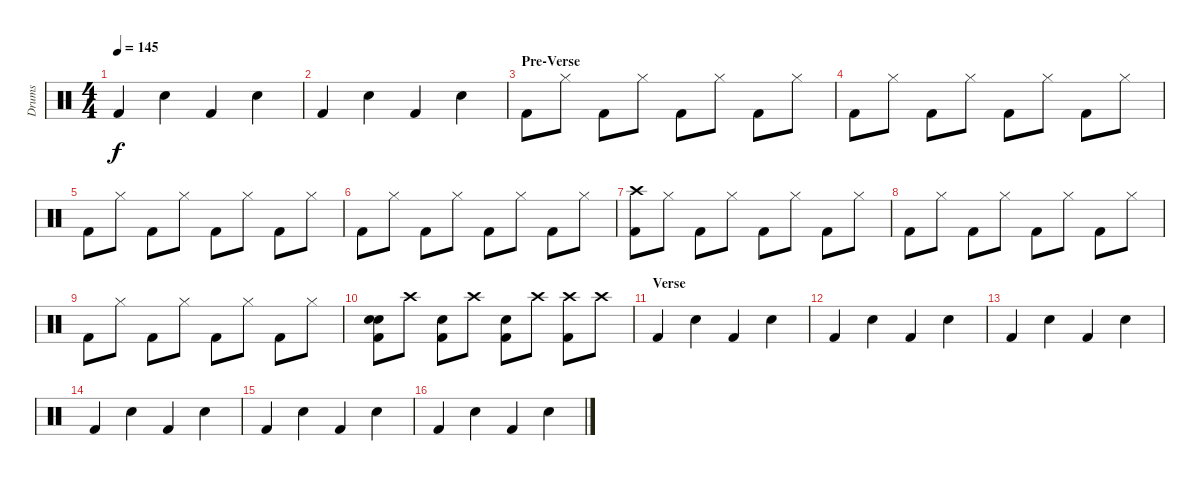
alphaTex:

\track ("Drums" "Drums") {instrument percussion}
\staff {score}
\articulation defaults
\ts (4 4)
\tempo 145
\clef neutral
\ks c "Kick (hit) 2".4{dy f} "Snare (hit) 2".4 "Kick (hit) 2".4 "Snare (hit) 2".4
|
"Kick (hit) 2".4 "Snare (hit) 2".4 "Kick (hit) 2".4 "Snare (hit) 2".4 |
\section ("" "Pre-Verse")
"Kick (hit) 2".8 "Hi-Hat (closed)".8 "Kick (hit) 2".8 "Hi-Hat (closed)".8 "Kick (hit) 2".8 "Hi-Hat (closed)".8 "Kick (hit) 2".8 "Hi-Hat (closed)".8 |
"Kick (hit) 2".8 "Hi-Hat (closed)".8 "Kick (hit) 2".8 "Hi-Hat (closed)".8 "Kick (hit) 2".8 "Hi-Hat (closed)".8 "Kick (hit) 2".8 "Hi-Hat (closed)".8 |
"Kick (hit) 2".8 "Hi-Hat (closed)".8 "Kick (hit) 2".8 "Hi-Hat (closed)".8 "Kick (hit) 2".8 "Hi-Hat (closed)".8 "Kick (hit) 2".8 "Hi-Hat (closed)".8 |
"Kick (hit) 2".8 "Hi-Hat (closed)".8 "Kick (hit) 2".8 "Hi-Hat (closed)".8 "Kick (hit) 2".8 "Hi-Hat (closed)".8 "Kick (hit) 2".8 "Hi-Hat (closed)".8 |
("Crash high (hit)" "Kick (hit) 2").8 "Hi-Hat (closed)".8 "Kick (hit) 2".8 "Hi-Hat (closed)".8 "Kick (hit) 2".8 "Hi-Hat (closed)".8 "Kick (hit) 2".8 "Hi-Hat (closed)".8 |
"Kick (hit) 2".8 "Hi-Hat (closed)".8 "Kick (hit) 2".8 "Hi-Hat (closed)".8 "Kick (hit) 2".8 "Hi-Hat (closed)".8 "Kick (hit) 2".8 "Hi-Hat (closed)".8 |
"Kick (hit) 2".8 "Hi-Hat (closed)".8 "Kick (hit) 2".8 "Hi-Hat (closed)".8 "Kick (hit) 2".8 "Hi-Hat (closed)".8 "Kick (hit) 2".8 "Hi-Hat (closed)".8 |
("Snare (hit) 2" "Snare (hit) 2" "Kick (hit) 2").8 "Crash high (hit)".8 ("Snare (hit) 2" "Kick (hit) 2").8 "Crash high (hit)".8 ("Snare (hit) 2" "Kick (hit) 2").8 "Crash high (hit)".8 ("Crash high (hit)" "Kick (hit) 2").8 "Crash high (hit)".8 |
\section ("" "Verse")
"Kick (hit) 2".4 "Snare (hit) 2".4 "Kick (hit) 2".4 "Snare (hit) 2".4 |
"Kick (hit) 2".4 "Snare (hit) 2".4 "Kick (hit) 2".4 "Snare (hit) 2".4 |
"Kick (hit) 2".4 "Snare (hit) 2".4 "Kick (hit) 2".4 "Snare (hit) 2".4 |
"Kick (hit) 2".4 "Snare (hit) 2".4 "Kick (hit) 2".4 "Snare (hit) 2".4 |
"Kick (hit) 2".4 "Snare (hit) 2".4 "Kick (hit) 2".4 "Snare (hit) 2".4 |
"Kick (hit) 2".4 "Snare (hit) 2".4 "Kick (hit) 2".4 "Snare (hit) 2".4
